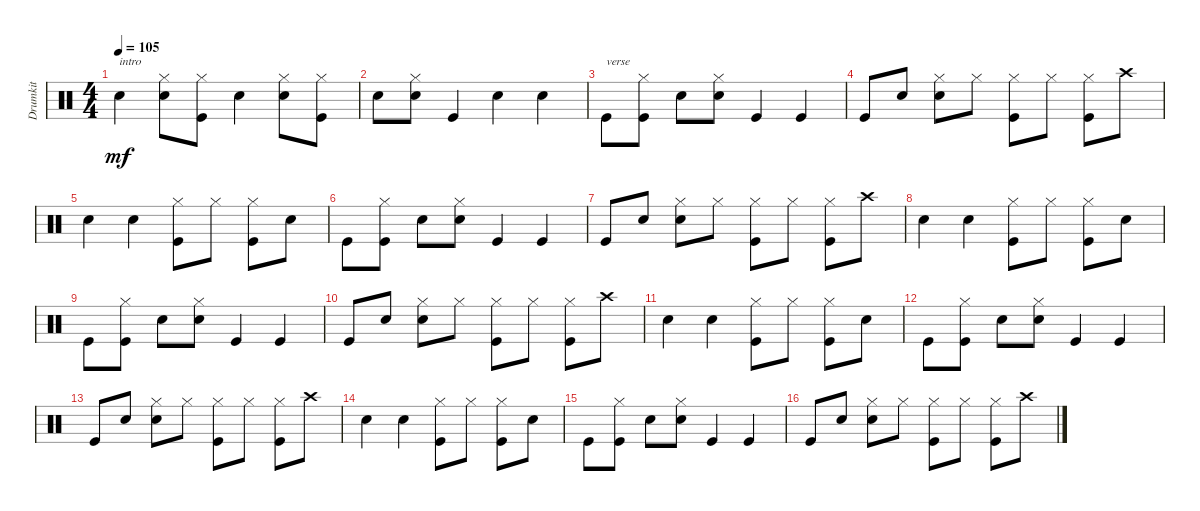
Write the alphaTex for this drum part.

\track ("Drumkit" "Drumkit") {instrument percussion}
\staff {score}
\articulation defaults
\ts (4 4)
\tempo 105
\clef neutral
\ks c "Snare (hit) 2".4{txt "intro" dy mf}
("Snare (hit) 2" "Hi-Hat (closed)").8 ("Kick (hit)" "Hi-Hat (closed)").8 "Snare (hit) 2".4 ("Snare (hit) 2" "Hi-Hat (closed)").8 ("Kick (hit)" "Hi-Hat (closed)").8 |
"Snare (hit) 2".8 ("Snare (hit) 2" "Hi-Hat (closed)").8 "Kick (hit)".4 "Snare (hit) 2".4 "Snare (hit) 2".4 |
"Kick (hit)".8{txt "verse"} ("Kick (hit)" "Hi-Hat (closed)").8 "Snare (hit) 2".8 ("Snare (hit) 2" "Hi-Hat (closed)").8 "Kick (hit)".4 "Kick (hit)".4 |
"Kick (hit)".8 "Snare (hit) 2".8 ("Snare (hit) 2" "Hi-Hat (closed)").8 "Hi-Hat (closed)".8 ("Hi-Hat (closed)" "Kick (hit)").8 "Hi-Hat (closed)".8 ("Hi-Hat (closed)" "Kick (hit)").8 "Crash high (hit)".8 |
"Snare (hit) 2".4 "Snare (hit) 2".4 ("Kick (hit)" "Hi-Hat (closed)").8 "Hi-Hat (closed)".8 ("Kick (hit)" "Hi-Hat (closed)").8 "Snare (hit) 2".8 |
"Kick (hit)".8 ("Kick (hit)" "Hi-Hat (closed)").8 "Snare (hit) 2".8 ("Snare (hit) 2" "Hi-Hat (closed)").8 "Kick (hit)".4 "Kick (hit)".4 |
"Kick (hit)".8 "Snare (hit) 2".8 ("Snare (hit) 2" "Hi-Hat (closed)").8 "Hi-Hat (closed)".8 ("Hi-Hat (closed)" "Kick (hit)").8 "Hi-Hat (closed)".8 ("Hi-Hat (closed)" "Kick (hit)").8 "Crash high (hit)".8 |
"Snare (hit) 2".4 "Snare (hit) 2".4 ("Kick (hit)" "Hi-Hat (closed)").8 "Hi-Hat (closed)".8 ("Kick (hit)" "Hi-Hat (closed)").8 "Snare (hit) 2".8 |
"Kick (hit)".8 ("Kick (hit)" "Hi-Hat (closed)").8 "Snare (hit) 2".8 ("Snare (hit) 2" "Hi-Hat (closed)").8 "Kick (hit)".4 "Kick (hit)".4 |
"Kick (hit)".8 "Snare (hit) 2".8 ("Snare (hit) 2" "Hi-Hat (closed)").8 "Hi-Hat (closed)".8 ("Hi-Hat (closed)" "Kick (hit)").8 "Hi-Hat (closed)".8 ("Hi-Hat (closed)" "Kick (hit)").8 "Crash high (hit)".8 |
"Snare (hit) 2".4 "Snare (hit) 2".4 ("Kick (hit)" "Hi-Hat (closed)").8 "Hi-Hat (closed)".8 ("Kick (hit)" "Hi-Hat (closed)").8 "Snare (hit) 2".8 |
"Kick (hit)".8 ("Kick (hit)" "Hi-Hat (closed)").8 "Snare (hit) 2".8 ("Snare (hit) 2" "Hi-Hat (closed)").8 "Kick (hit)".4 "Kick (hit)".4 |
"Kick (hit)".8 "Snare (hit) 2".8 ("Snare (hit) 2" "Hi-Hat (closed)").8 "Hi-Hat (closed)".8 ("Hi-Hat (closed)" "Kick (hit)").8 "Hi-Hat (closed)".8 ("Hi-Hat (closed)" "Kick (hit)").8 "Crash high (hit)".8 |
"Snare (hit) 2".4 "Snare (hit) 2".4 ("Kick (hit)" "Hi-Hat (closed)").8 "Hi-Hat (closed)".8 ("Kick (hit)" "Hi-Hat (closed)").8 "Snare (hit) 2".8 |
"Kick (hit)".8 ("Kick (hit)" "Hi-Hat (closed)").8 "Snare (hit) 2".8 ("Snare (hit) 2" "Hi-Hat (closed)").8 "Kick (hit)".4 "Kick (hit)".4 |
"Kick (hit)".8 "Snare (hit) 2".8 ("Snare (hit) 2" "Hi-Hat (closed)").8 "Hi-Hat (closed)".8 ("Hi-Hat (closed)" "Kick (hit)").8 "Hi-Hat (closed)".8 ("Hi-Hat (closed)" "Kick (hit)").8 "Crash high (hit)".8
